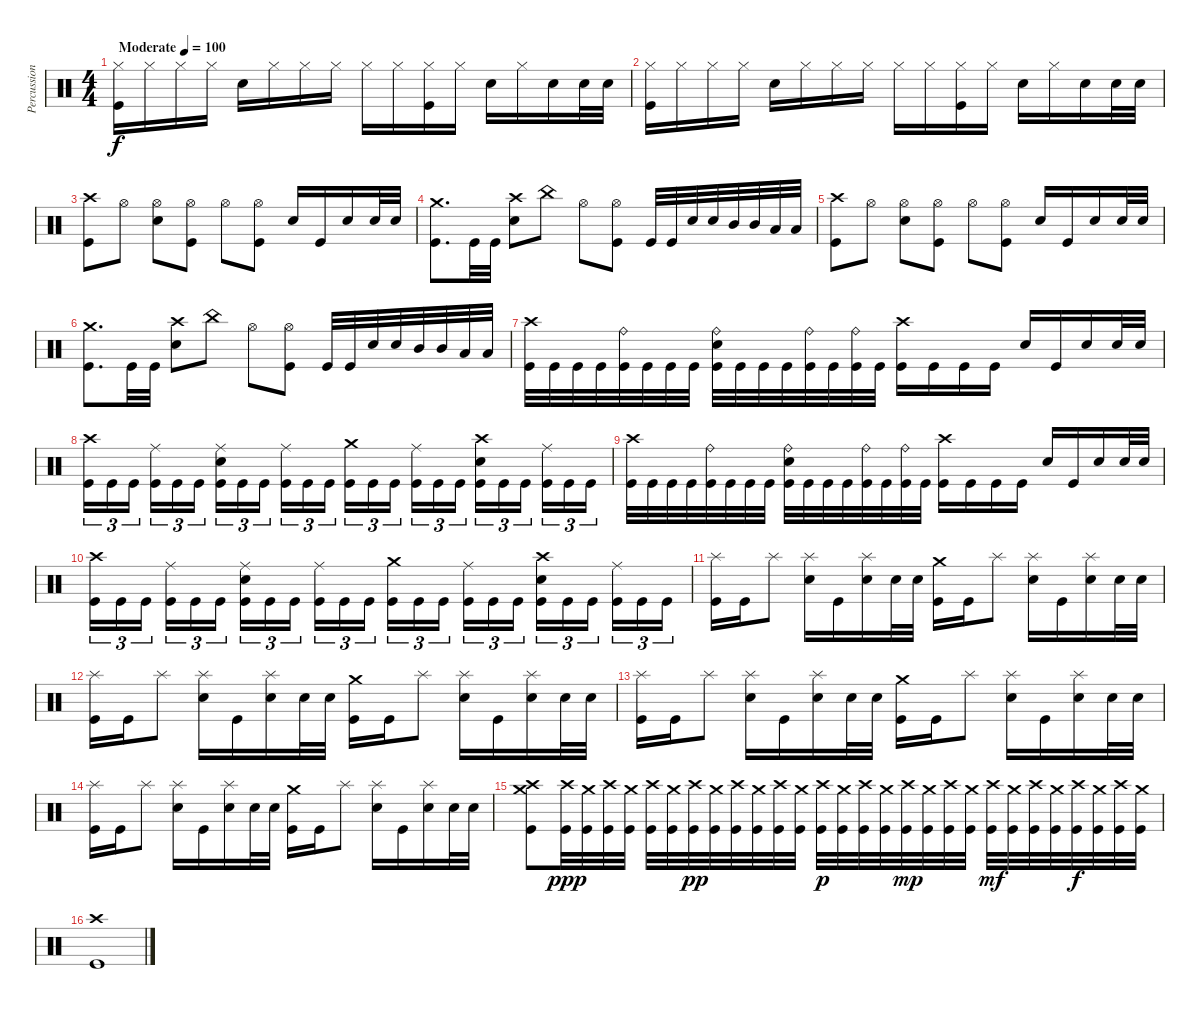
\track ("Percussion" "Percussion") {instrument percussion}
\staff {score}
\articulation defaults
\ts (4 4)
\tempo (100 "Moderate")
\clef neutral
\ks c
("Hi-Hat (closed)" "Kick (hit)").16{dy f} "Hi-Hat (closed)".16 "Hi-Hat (closed)".16 "Hi-Hat (closed)".16 "Electric Snare (hit)".16 "Hi-Hat (closed)".16 "Hi-Hat (closed)".16 "Hi-Hat (closed)".16 "Hi-Hat (closed)".16 "Hi-Hat (closed)".16 ("Hi-Hat (closed)" "Kick (hit)").16 "Hi-Hat (closed)".16 "Electric Snare (hit)".16 "Hi-Hat (closed)".16 "Electric Snare (hit)".16 "Electric Snare (hit)".32 "Electric Snare (hit)".32 |
("Hi-Hat (closed)" "Kick (hit)").16 "Hi-Hat (closed)".16 "Hi-Hat (closed)".16 "Hi-Hat (closed)".16 "Electric Snare (hit)".16 "Hi-Hat (closed)".16 "Hi-Hat (closed)".16 "Hi-Hat (closed)".16 "Hi-Hat (closed)".16 "Hi-Hat (closed)".16 ("Hi-Hat (closed)" "Kick (hit)").16 "Hi-Hat (closed)".16 "Electric Snare (hit)".16 "Hi-Hat (closed)".16 "Electric Snare (hit)".16 "Electric Snare (hit)".32 "Electric Snare (hit)".32 |
("Crash high (hit)" "Kick (hit)").8 "Hi-Hat (open)".8 ("Hi-Hat (open)" "Electric Snare (hit)").8 ("Hi-Hat (open)" "Kick (hit)").8 "Hi-Hat (open)".8 ("Hi-Hat (open)" "Kick (hit)").8 "Electric Snare (hit)".16 "Kick (hit)".16 "Electric Snare (hit)".16 "Electric Snare (hit)".32 "Electric Snare (hit)".32 |
("Crash medium (hit)" "Kick (hit)").8{d} "Kick (hit)".32 "Kick (hit)".32 ("Crash high (hit)" "Electric Snare (hit)").8 "China (hit)".8 "Hi-Hat (open)".8 ("Hi-Hat (open)" "Kick (hit)").8 "Kick (hit)".32 "Kick (hit)".32 "Electric Snare (hit)".32 "Electric Snare (hit)".32 "Mid Tom (hit)".32 "Mid Tom (hit)".32 "Low Tom (hit)".32 "Low Tom (hit)".32 |
("Crash high (hit)" "Kick (hit)").8 "Hi-Hat (open)".8 ("Hi-Hat (open)" "Electric Snare (hit)").8 ("Hi-Hat (open)" "Kick (hit)").8 "Hi-Hat (open)".8 ("Hi-Hat (open)" "Kick (hit)").8 "Electric Snare (hit)".16 "Kick (hit)".16 "Electric Snare (hit)".16 "Electric Snare (hit)".32 "Electric Snare (hit)".32 |
("Crash medium (hit)" "Kick (hit)").8{d} "Kick (hit)".32 "Kick (hit)".32 ("Crash high (hit)" "Electric Snare (hit)").8 "China (hit)".8 "Hi-Hat (open)".8 ("Hi-Hat (open)" "Kick (hit)").8 "Kick (hit)".32 "Kick (hit)".32 "Electric Snare (hit)".32 "Electric Snare (hit)".32 "Mid Tom (hit)".32 "Mid Tom (hit)".32 "Low Tom (hit)".32 "Low Tom (hit)".32 |
("Crash high (hit)" "Kick (hit)").32 "Kick (hit)".32 "Kick (hit)".32 "Kick (hit)".32 ("Ride (bell)" "Kick (hit)").32 "Kick (hit)".32 "Kick (hit)".32 "Kick (hit)".32 ("Ride (bell)" "Electric Snare (hit)" "Kick (hit)").32 "Kick (hit)".32 "Kick (hit)".32 "Kick (hit)".32 ("Ride (bell)" "Kick (hit)").32 "Kick (hit)".32 ("Ride (bell)" "Kick (hit)").32 "Kick (hit)".32 ("Crash high (hit)" "Kick (hit)").16 "Kick (hit)".16 "Kick (hit)".16 "Kick (hit)".16 "Electric Snare (hit)".16 "Kick (hit)".16 "Electric Snare (hit)".16 "Electric Snare (hit)".32 "Electric Snare (hit)".32 |
("Crash high (hit)" "Kick (hit)").16{tu (3 2)} "Kick (hit)".16{tu (3 2)} "Kick (hit)".16{tu (3 2) beam splitsecondary} ("Ride (middle)" "Kick (hit)").16{tu (3 2)} "Kick (hit)".16{tu (3 2)} "Kick (hit)".16{tu (3 2)} ("Ride (middle)" "Electric Snare (hit)" "Kick (hit)").16{tu (3 2)} "Kick (hit)".16{tu (3 2)} "Kick (hit)".16{tu (3 2) beam splitsecondary} ("Ride (middle)" "Kick (hit)").16{tu (3 2)} "Kick (hit)".16{tu (3 2)} "Kick (hit)".16{tu (3 2)} ("Crash medium (hit)" "Kick (hit)").16{tu (3 2)} "Kick (hit)".16{tu (3 2)} "Kick (hit)".16{tu (3 2) beam splitsecondary} ("Ride (middle)" "Kick (hit)").16{tu (3 2)} "Kick (hit)".16{tu (3 2)} "Kick (hit)".16{tu (3 2)} ("Crash high (hit)" "Electric Snare (hit)" "Kick (hit)").16{tu (3 2)} "Kick (hit)".16{tu (3 2)} "Kick (hit)".16{tu (3 2) beam splitsecondary} ("Ride (middle)" "Kick (hit)").16{tu (3 2)} "Kick (hit)".16{tu (3 2)} "Kick (hit)".16{tu (3 2)} |
("Crash high (hit)" "Kick (hit)").32 "Kick (hit)".32 "Kick (hit)".32 "Kick (hit)".32 ("Ride (bell)" "Kick (hit)").32 "Kick (hit)".32 "Kick (hit)".32 "Kick (hit)".32 ("Ride (bell)" "Electric Snare (hit)" "Kick (hit)").32 "Kick (hit)".32 "Kick (hit)".32 "Kick (hit)".32 ("Ride (bell)" "Kick (hit)").32 "Kick (hit)".32 ("Ride (bell)" "Kick (hit)").32 "Kick (hit)".32 ("Crash high (hit)" "Kick (hit)").16 "Kick (hit)".16 "Kick (hit)".16 "Kick (hit)".16 "Electric Snare (hit)".16 "Kick (hit)".16 "Electric Snare (hit)".16 "Electric Snare (hit)".32 "Electric Snare (hit)".32 |
("Crash high (hit)" "Kick (hit)").16{tu (3 2)} "Kick (hit)".16{tu (3 2)} "Kick (hit)".16{tu (3 2) beam splitsecondary} ("Ride (middle)" "Kick (hit)").16{tu (3 2)} "Kick (hit)".16{tu (3 2)} "Kick (hit)".16{tu (3 2)} ("Ride (middle)" "Electric Snare (hit)" "Kick (hit)").16{tu (3 2)} "Kick (hit)".16{tu (3 2)} "Kick (hit)".16{tu (3 2) beam splitsecondary} ("Ride (middle)" "Kick (hit)").16{tu (3 2)} "Kick (hit)".16{tu (3 2)} "Kick (hit)".16{tu (3 2)} ("Crash medium (hit)" "Kick (hit)").16{tu (3 2)} "Kick (hit)".16{tu (3 2)} "Kick (hit)".16{tu (3 2) beam splitsecondary} ("Ride (middle)" "Kick (hit)").16{tu (3 2)} "Kick (hit)".16{tu (3 2)} "Kick (hit)".16{tu (3 2)} ("Crash high (hit)" "Electric Snare (hit)" "Kick (hit)").16{tu (3 2)} "Kick (hit)".16{tu (3 2)} "Kick (hit)".16{tu (3 2) beam splitsecondary} ("Ride (middle)" "Kick (hit)").16{tu (3 2)} "Kick (hit)".16{tu (3 2)} "Kick (hit)".16{tu (3 2)} |
("Splash (hit)" "Kick (hit)").16 "Kick (hit)".16 "Splash (hit)".8 ("Splash (hit)" "Electric Snare (hit)").16 "Kick (hit)".16 ("Splash (hit)" "Electric Snare (hit)").16 "Electric Snare (hit)".32 "Electric Snare (hit)".32 ("Crash medium (hit)" "Kick (hit)").16 "Kick (hit)".16 "Splash (hit)".8 ("Splash (hit)" "Electric Snare (hit)").16 "Kick (hit)".16 ("Splash (hit)" "Electric Snare (hit)").16 "Electric Snare (hit)".32 "Electric Snare (hit)".32 |
("Splash (hit)" "Kick (hit)").16 "Kick (hit)".16 "Splash (hit)".8 ("Splash (hit)" "Electric Snare (hit)").16 "Kick (hit)".16 ("Splash (hit)" "Electric Snare (hit)").16 "Electric Snare (hit)".32 "Electric Snare (hit)".32 ("Crash medium (hit)" "Kick (hit)").16 "Kick (hit)".16 "Splash (hit)".8 ("Splash (hit)" "Electric Snare (hit)").16 "Kick (hit)".16 ("Splash (hit)" "Electric Snare (hit)").16 "Electric Snare (hit)".32 "Electric Snare (hit)".32 |
("Splash (hit)" "Kick (hit)").16 "Kick (hit)".16 "Splash (hit)".8 ("Splash (hit)" "Electric Snare (hit)").16 "Kick (hit)".16 ("Splash (hit)" "Electric Snare (hit)").16 "Electric Snare (hit)".32 "Electric Snare (hit)".32 ("Crash medium (hit)" "Kick (hit)").16 "Kick (hit)".16 "Splash (hit)".8 ("Splash (hit)" "Electric Snare (hit)").16 "Kick (hit)".16 ("Splash (hit)" "Electric Snare (hit)").16 "Electric Snare (hit)".32 "Electric Snare (hit)".32 |
("Splash (hit)" "Kick (hit)").16 "Kick (hit)".16 "Splash (hit)".8 ("Splash (hit)" "Electric Snare (hit)").16 "Kick (hit)".16 ("Splash (hit)" "Electric Snare (hit)").16 "Electric Snare (hit)".32 "Electric Snare (hit)".32 ("Crash medium (hit)" "Kick (hit)").16 "Kick (hit)".16 "Splash (hit)".8 ("Splash (hit)" "Electric Snare (hit)").16 "Kick (hit)".16 ("Splash (hit)" "Electric Snare (hit)").16 "Electric Snare (hit)".32 "Electric Snare (hit)".32 |
("Crash high (hit)" "Crash medium (hit)" "Kick (hit)").8 ("Crash high (hit)" "Kick (hit)").32{dy ppp} ("Crash medium (hit)" "Kick (hit)").32 ("Crash high (hit)" "Kick (hit)").32 ("Crash medium (hit)" "Kick (hit)").32 ("Crash high (hit)" "Kick (hit)").32 ("Crash medium (hit)" "Kick (hit)").32 ("Crash high (hit)" "Kick (hit)").32{dy pp} ("Crash medium (hit)" "Kick (hit)").32 ("Crash high (hit)" "Kick (hit)").32 ("Crash medium (hit)" "Kick (hit)").32 ("Crash high (hit)" "Kick (hit)").32 ("Crash medium (hit)" "Kick (hit)").32 ("Crash high (hit)" "Kick (hit)").32{dy p} ("Crash medium (hit)" "Kick (hit)").32 ("Crash high (hit)" "Kick (hit)").32 ("Crash medium (hit)" "Kick (hit)").32 ("Crash high (hit)" "Kick (hit)").32{dy mp} ("Crash medium (hit)" "Kick (hit)").32 ("Crash high (hit)" "Kick (hit)").32 ("Crash medium (hit)" "Kick (hit)").32 ("Crash high (hit)" "Kick (hit)").32{dy mf} ("Crash medium (hit)" "Kick (hit)").32 ("Crash high (hit)" "Kick (hit)").32 ("Crash medium (hit)" "Kick (hit)").32 ("Crash high (hit)" "Kick (hit)").32{dy f} ("Crash medium (hit)" "Kick (hit)").32 ("Crash high (hit)" "Kick (hit)").32 ("Crash medium (hit)" "Kick (hit)").32 |
("Crash high (hit)" "Kick (hit)").1
